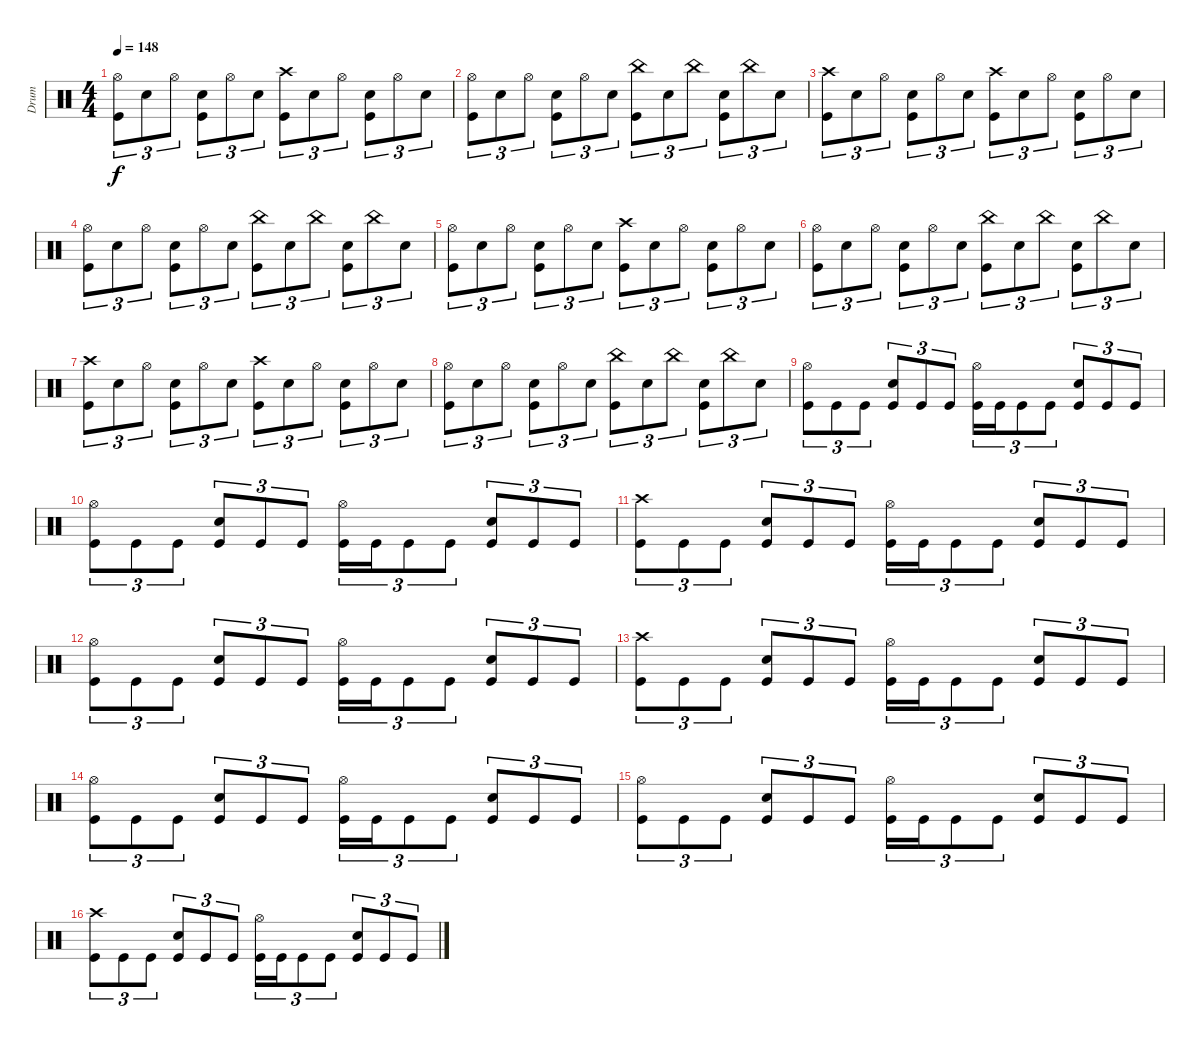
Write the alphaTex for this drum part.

\track ("Drum" "Drum") {instrument percussion}
\staff {score}
\articulation defaults
\ts (4 4)
\tempo 148
\clef neutral
\ks c
("Hi-Hat (open)" "Kick (hit)").8{tu (3 2) dy f} "Snare (hit) 2".8{tu (3 2)} "Hi-Hat (open)".8{tu (3 2)} ("Snare (hit) 2" "Kick (hit)").8{tu (3 2)} "Hi-Hat (open)".8{tu (3 2)} "Snare (hit) 2".8{tu (3 2)} ("Crash high (hit)" "Kick (hit)").8{tu (3 2)} "Snare (hit) 2".8{tu (3 2)} "Hi-Hat (open)".8{tu (3 2)} ("Snare (hit) 2" "Kick (hit)").8{tu (3 2)} "Hi-Hat (open)".8{tu (3 2)} "Snare (hit) 2".8{tu (3 2)} |
("Hi-Hat (open)" "Kick (hit)").8{tu (3 2)} "Snare (hit) 2".8{tu (3 2)} "Hi-Hat (open)".8{tu (3 2)} ("Snare (hit) 2" "Kick (hit)").8{tu (3 2)} "Hi-Hat (open)".8{tu (3 2)} "Snare (hit) 2".8{tu (3 2)} ("China (hit)" "Kick (hit)").8{tu (3 2)} "Snare (hit) 2".8{tu (3 2)} "China (hit)".8{tu (3 2)} ("Snare (hit) 2" "Kick (hit)").8{tu (3 2)} "China (hit)".8{tu (3 2)} "Snare (hit) 2".8{tu (3 2)} |
("Crash high (hit)" "Kick (hit)").8{tu (3 2)} "Snare (hit) 2".8{tu (3 2)} "Hi-Hat (open)".8{tu (3 2)} ("Snare (hit) 2" "Kick (hit)").8{tu (3 2)} "Hi-Hat (open)".8{tu (3 2)} "Snare (hit) 2".8{tu (3 2)} ("Crash high (hit)" "Kick (hit)").8{tu (3 2)} "Snare (hit) 2".8{tu (3 2)} "Hi-Hat (open)".8{tu (3 2)} ("Snare (hit) 2" "Kick (hit)").8{tu (3 2)} "Hi-Hat (open)".8{tu (3 2)} "Snare (hit) 2".8{tu (3 2)} |
("Hi-Hat (open)" "Kick (hit)").8{tu (3 2)} "Snare (hit) 2".8{tu (3 2)} "Hi-Hat (open)".8{tu (3 2)} ("Snare (hit) 2" "Kick (hit)").8{tu (3 2)} "Hi-Hat (open)".8{tu (3 2)} "Snare (hit) 2".8{tu (3 2)} ("China (hit)" "Kick (hit)").8{tu (3 2)} "Snare (hit) 2".8{tu (3 2)} "China (hit)".8{tu (3 2)} ("Snare (hit) 2" "Kick (hit)").8{tu (3 2)} "China (hit)".8{tu (3 2)} "Snare (hit) 2".8{tu (3 2)} |
("Hi-Hat (open)" "Kick (hit)").8{tu (3 2)} "Snare (hit) 2".8{tu (3 2)} "Hi-Hat (open)".8{tu (3 2)} ("Snare (hit) 2" "Kick (hit)").8{tu (3 2)} "Hi-Hat (open)".8{tu (3 2)} "Snare (hit) 2".8{tu (3 2)} ("Crash high (hit)" "Kick (hit)").8{tu (3 2)} "Snare (hit) 2".8{tu (3 2)} "Hi-Hat (open)".8{tu (3 2)} ("Snare (hit) 2" "Kick (hit)").8{tu (3 2)} "Hi-Hat (open)".8{tu (3 2)} "Snare (hit) 2".8{tu (3 2)} |
("Hi-Hat (open)" "Kick (hit)").8{tu (3 2)} "Snare (hit) 2".8{tu (3 2)} "Hi-Hat (open)".8{tu (3 2)} ("Snare (hit) 2" "Kick (hit)").8{tu (3 2)} "Hi-Hat (open)".8{tu (3 2)} "Snare (hit) 2".8{tu (3 2)} ("China (hit)" "Kick (hit)").8{tu (3 2)} "Snare (hit) 2".8{tu (3 2)} "China (hit)".8{tu (3 2)} ("Snare (hit) 2" "Kick (hit)").8{tu (3 2)} "China (hit)".8{tu (3 2)} "Snare (hit) 2".8{tu (3 2)} |
("Crash high (hit)" "Kick (hit)").8{tu (3 2)} "Snare (hit) 2".8{tu (3 2)} "Hi-Hat (open)".8{tu (3 2)} ("Snare (hit) 2" "Kick (hit)").8{tu (3 2)} "Hi-Hat (open)".8{tu (3 2)} "Snare (hit) 2".8{tu (3 2)} ("Crash high (hit)" "Kick (hit)").8{tu (3 2)} "Snare (hit) 2".8{tu (3 2)} "Hi-Hat (open)".8{tu (3 2)} ("Snare (hit) 2" "Kick (hit)").8{tu (3 2)} "Hi-Hat (open)".8{tu (3 2)} "Snare (hit) 2".8{tu (3 2)} |
("Hi-Hat (open)" "Kick (hit)").8{tu (3 2)} "Snare (hit) 2".8{tu (3 2)} "Hi-Hat (open)".8{tu (3 2)} ("Snare (hit) 2" "Kick (hit)").8{tu (3 2)} "Hi-Hat (open)".8{tu (3 2)} "Snare (hit) 2".8{tu (3 2)} ("China (hit)" "Kick (hit)").8{tu (3 2)} "Snare (hit) 2".8{tu (3 2)} "China (hit)".8{tu (3 2)} ("Snare (hit) 2" "Kick (hit)").8{tu (3 2)} "China (hit)".8{tu (3 2)} "Snare (hit) 2".8{tu (3 2)} |
("Hi-Hat (open)" "Kick (hit)").8{tu (3 2)} "Kick (hit)".8{tu (3 2)} "Kick (hit)".8{tu (3 2)} ("Snare (hit) 2" "Kick (hit)").8{tu (3 2)} "Kick (hit)".8{tu (3 2)} "Kick (hit)".8{tu (3 2)} ("Hi-Hat (open)" "Kick (hit)").16{tu (3 2)} "Kick (hit)".16{tu (3 2)} "Kick (hit)".8{tu (3 2)} "Kick (hit)".8{tu (3 2)} ("Snare (hit) 2" "Kick (hit)").8{tu (3 2)} "Kick (hit)".8{tu (3 2)} "Kick (hit)".8{tu (3 2)} |
("Hi-Hat (open)" "Kick (hit)").8{tu (3 2)} "Kick (hit)".8{tu (3 2)} "Kick (hit)".8{tu (3 2)} ("Snare (hit) 2" "Kick (hit)").8{tu (3 2)} "Kick (hit)".8{tu (3 2)} "Kick (hit)".8{tu (3 2)} ("Hi-Hat (open)" "Kick (hit)").16{tu (3 2)} "Kick (hit)".16{tu (3 2)} "Kick (hit)".8{tu (3 2)} "Kick (hit)".8{tu (3 2)} ("Snare (hit) 2" "Kick (hit)").8{tu (3 2)} "Kick (hit)".8{tu (3 2)} "Kick (hit)".8{tu (3 2)} |
("Crash high (hit)" "Kick (hit)").8{tu (3 2)} "Kick (hit)".8{tu (3 2)} "Kick (hit)".8{tu (3 2)} ("Snare (hit) 2" "Kick (hit)").8{tu (3 2)} "Kick (hit)".8{tu (3 2)} "Kick (hit)".8{tu (3 2)} ("Hi-Hat (open)" "Kick (hit)").16{tu (3 2)} "Kick (hit)".16{tu (3 2)} "Kick (hit)".8{tu (3 2)} "Kick (hit)".8{tu (3 2)} ("Snare (hit) 2" "Kick (hit)").8{tu (3 2)} "Kick (hit)".8{tu (3 2)} "Kick (hit)".8{tu (3 2)} |
("Hi-Hat (open)" "Kick (hit)").8{tu (3 2)} "Kick (hit)".8{tu (3 2)} "Kick (hit)".8{tu (3 2)} ("Snare (hit) 2" "Kick (hit)").8{tu (3 2)} "Kick (hit)".8{tu (3 2)} "Kick (hit)".8{tu (3 2)} ("Hi-Hat (open)" "Kick (hit)").16{tu (3 2)} "Kick (hit)".16{tu (3 2)} "Kick (hit)".8{tu (3 2)} "Kick (hit)".8{tu (3 2)} ("Snare (hit) 2" "Kick (hit)").8{tu (3 2)} "Kick (hit)".8{tu (3 2)} "Kick (hit)".8{tu (3 2)} |
("Crash high (hit)" "Kick (hit)").8{tu (3 2)} "Kick (hit)".8{tu (3 2)} "Kick (hit)".8{tu (3 2)} ("Snare (hit) 2" "Kick (hit)").8{tu (3 2)} "Kick (hit)".8{tu (3 2)} "Kick (hit)".8{tu (3 2)} ("Hi-Hat (open)" "Kick (hit)").16{tu (3 2)} "Kick (hit)".16{tu (3 2)} "Kick (hit)".8{tu (3 2)} "Kick (hit)".8{tu (3 2)} ("Snare (hit) 2" "Kick (hit)").8{tu (3 2)} "Kick (hit)".8{tu (3 2)} "Kick (hit)".8{tu (3 2)} |
("Hi-Hat (open)" "Kick (hit)").8{tu (3 2)} "Kick (hit)".8{tu (3 2)} "Kick (hit)".8{tu (3 2)} ("Snare (hit) 2" "Kick (hit)").8{tu (3 2)} "Kick (hit)".8{tu (3 2)} "Kick (hit)".8{tu (3 2)} ("Hi-Hat (open)" "Kick (hit)").16{tu (3 2)} "Kick (hit)".16{tu (3 2)} "Kick (hit)".8{tu (3 2)} "Kick (hit)".8{tu (3 2)} ("Snare (hit) 2" "Kick (hit)").8{tu (3 2)} "Kick (hit)".8{tu (3 2)} "Kick (hit)".8{tu (3 2)} |
("Hi-Hat (open)" "Kick (hit)").8{tu (3 2)} "Kick (hit)".8{tu (3 2)} "Kick (hit)".8{tu (3 2)} ("Snare (hit) 2" "Kick (hit)").8{tu (3 2)} "Kick (hit)".8{tu (3 2)} "Kick (hit)".8{tu (3 2)} ("Hi-Hat (open)" "Kick (hit)").16{tu (3 2)} "Kick (hit)".16{tu (3 2)} "Kick (hit)".8{tu (3 2)} "Kick (hit)".8{tu (3 2)} ("Snare (hit) 2" "Kick (hit)").8{tu (3 2)} "Kick (hit)".8{tu (3 2)} "Kick (hit)".8{tu (3 2)} |
("Crash high (hit)" "Kick (hit)").8{tu (3 2)} "Kick (hit)".8{tu (3 2)} "Kick (hit)".8{tu (3 2)} ("Snare (hit) 2" "Kick (hit)").8{tu (3 2)} "Kick (hit)".8{tu (3 2)} "Kick (hit)".8{tu (3 2)} ("Hi-Hat (open)" "Kick (hit)").16{tu (3 2)} "Kick (hit)".16{tu (3 2)} "Kick (hit)".8{tu (3 2)} "Kick (hit)".8{tu (3 2)} ("Snare (hit) 2" "Kick (hit)").8{tu (3 2)} "Kick (hit)".8{tu (3 2)} "Kick (hit)".8{tu (3 2)}
